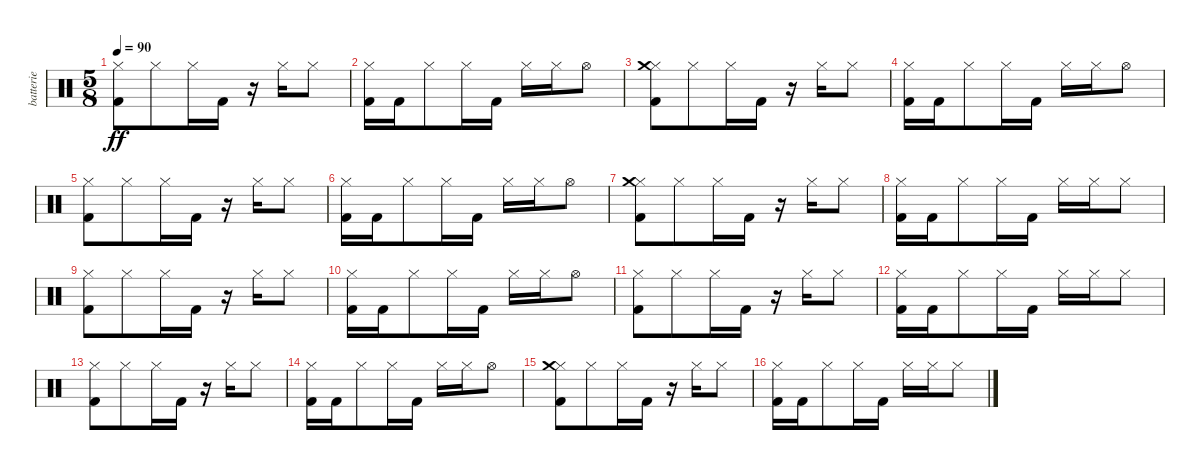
\track ("batterie" "batterie") {instrument percussion}
\staff {score}
\articulation defaults
\ts (5 8)
\tempo 90
\clef neutral
\ks c
("Kick (hit) 2" "Hi-Hat (closed)").8{dy ff} "Hi-Hat (closed)".8 "Hi-Hat (closed)".16 "Kick (hit) 2".16 r.16 "Hi-Hat (closed)".16 "Hi-Hat (closed)".8 |
("Kick (hit) 2" "Hi-Hat (closed)").16 "Kick (hit) 2".16 "Hi-Hat (closed)".8 "Hi-Hat (closed)".16 "Kick (hit) 2".16 "Hi-Hat (closed)".16 "Hi-Hat (closed)".16 "Hi-Hat (open)".8 |
("Kick (hit) 2" "Hi-Hat (closed)" "Crash medium (hit)").8 "Hi-Hat (closed)".8 "Hi-Hat (closed)".16 "Kick (hit) 2".16 r.16 "Hi-Hat (closed)".16 "Hi-Hat (closed)".8 |
("Kick (hit) 2" "Hi-Hat (closed)").16 "Kick (hit) 2".16 "Hi-Hat (closed)".8 "Hi-Hat (closed)".16 "Kick (hit) 2".16 "Hi-Hat (closed)".16 "Hi-Hat (closed)".16 "Hi-Hat (open)".8 |
("Kick (hit) 2" "Hi-Hat (closed)").8 "Hi-Hat (closed)".8 "Hi-Hat (closed)".16 "Kick (hit) 2".16 r.16 "Hi-Hat (closed)".16 "Hi-Hat (closed)".8 |
("Kick (hit) 2" "Hi-Hat (closed)").16 "Kick (hit) 2".16 "Hi-Hat (closed)".8 "Hi-Hat (closed)".16 "Kick (hit) 2".16 "Hi-Hat (closed)".16 "Hi-Hat (closed)".16 "Hi-Hat (open)".8 |
("Kick (hit) 2" "Hi-Hat (closed)" "Crash medium (hit)").8 "Hi-Hat (closed)".8 "Hi-Hat (closed)".16 "Kick (hit) 2".16 r.16 "Hi-Hat (closed)".16 "Hi-Hat (closed)".8 |
("Kick (hit) 2" "Hi-Hat (closed)").16 "Kick (hit) 2".16 "Hi-Hat (closed)".8 "Hi-Hat (closed)".16 "Kick (hit) 2".16 "Hi-Hat (closed)".16 "Hi-Hat (closed)".16 "Hi-Hat (closed)".8 |
("Kick (hit) 2" "Hi-Hat (closed)").8 "Hi-Hat (closed)".8 "Hi-Hat (closed)".16 "Kick (hit) 2".16 r.16 "Hi-Hat (closed)".16 "Hi-Hat (closed)".8 |
("Kick (hit) 2" "Hi-Hat (closed)").16 "Kick (hit) 2".16 "Hi-Hat (closed)".8 "Hi-Hat (closed)".16 "Kick (hit) 2".16 "Hi-Hat (closed)".16 "Hi-Hat (closed)".16 "Hi-Hat (open)".8 |
("Kick (hit) 2" "Hi-Hat (closed)").8 "Hi-Hat (closed)".8 "Hi-Hat (closed)".16 "Kick (hit) 2".16 r.16 "Hi-Hat (closed)".16 "Hi-Hat (closed)".8 |
("Kick (hit) 2" "Hi-Hat (closed)").16 "Kick (hit) 2".16 "Hi-Hat (closed)".8 "Hi-Hat (closed)".16 "Kick (hit) 2".16 "Hi-Hat (closed)".16 "Hi-Hat (closed)".16 "Hi-Hat (closed)".8 |
("Kick (hit) 2" "Hi-Hat (closed)").8 "Hi-Hat (closed)".8 "Hi-Hat (closed)".16 "Kick (hit) 2".16 r.16 "Hi-Hat (closed)".16 "Hi-Hat (closed)".8 |
("Kick (hit) 2" "Hi-Hat (closed)").16 "Kick (hit) 2".16 "Hi-Hat (closed)".8 "Hi-Hat (closed)".16 "Kick (hit) 2".16 "Hi-Hat (closed)".16 "Hi-Hat (closed)".16 "Hi-Hat (open)".8 |
("Kick (hit) 2" "Hi-Hat (closed)" "Crash medium (hit)").8 "Hi-Hat (closed)".8 "Hi-Hat (closed)".16 "Kick (hit) 2".16 r.16 "Hi-Hat (closed)".16 "Hi-Hat (closed)".8 |
("Kick (hit) 2" "Hi-Hat (closed)").16 "Kick (hit) 2".16 "Hi-Hat (closed)".8 "Hi-Hat (closed)".16 "Kick (hit) 2".16 "Hi-Hat (closed)".16 "Hi-Hat (closed)".16 "Hi-Hat (closed)".8
